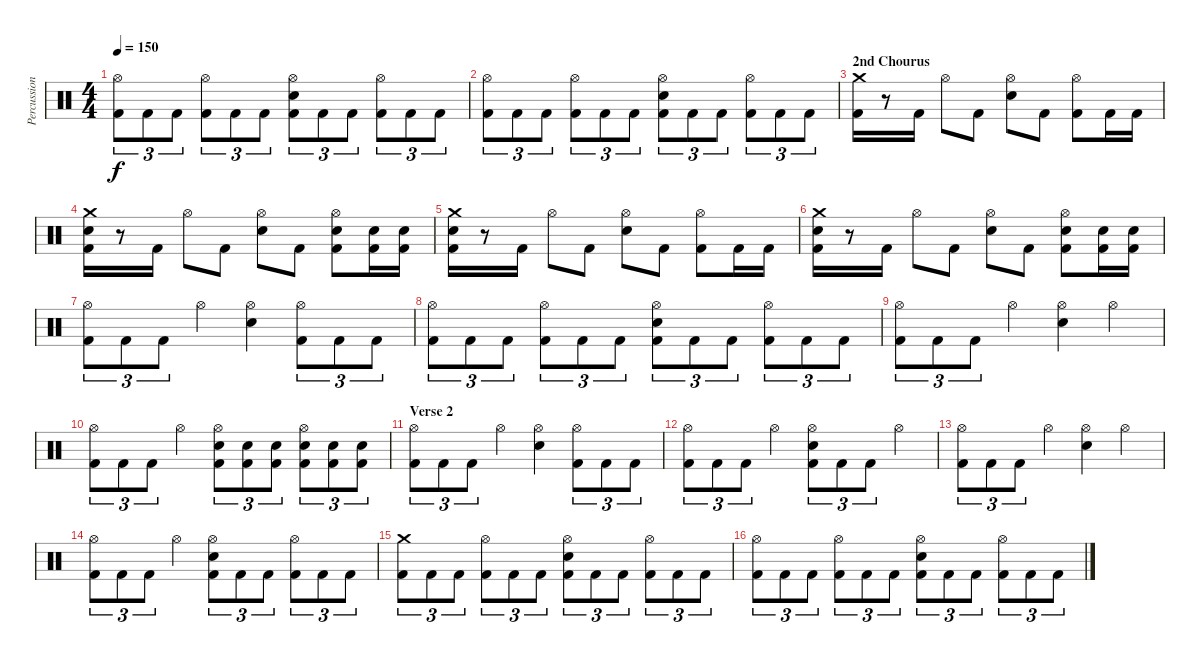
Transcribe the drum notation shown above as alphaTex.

\track ("Percussion" "Percussion") {instrument percussion}
\staff {score}
\articulation defaults
\ts (4 4)
\tempo 150
\clef neutral
\ks c
("Hi-Hat (open)" "Kick (hit) 2").8{tu (3 2) dy f} "Kick (hit) 2".8{tu (3 2)} "Kick (hit) 2".8{tu (3 2)} ("Hi-Hat (open)" "Kick (hit) 2").8{tu (3 2)} "Kick (hit) 2".8{tu (3 2)} "Kick (hit) 2".8{tu (3 2)} ("Hi-Hat (open)" "Electric Snare (hit)" "Kick (hit) 2").8{tu (3 2)} "Kick (hit) 2".8{tu (3 2)} "Kick (hit) 2".8{tu (3 2)} ("Hi-Hat (open)" "Kick (hit) 2").8{tu (3 2)} "Kick (hit) 2".8{tu (3 2)} "Kick (hit) 2".8{tu (3 2)} |
("Hi-Hat (open)" "Kick (hit) 2").8{tu (3 2)} "Kick (hit) 2".8{tu (3 2)} "Kick (hit) 2".8{tu (3 2)} ("Hi-Hat (open)" "Kick (hit) 2").8{tu (3 2)} "Kick (hit) 2".8{tu (3 2)} "Kick (hit) 2".8{tu (3 2)} ("Hi-Hat (open)" "Electric Snare (hit)" "Kick (hit) 2").8{tu (3 2)} "Kick (hit) 2".8{tu (3 2)} "Kick (hit) 2".8{tu (3 2)} ("Hi-Hat (open)" "Kick (hit) 2").8{tu (3 2)} "Kick (hit) 2".8{tu (3 2)} "Kick (hit) 2".8{tu (3 2)} |
\section ("" "2nd Chourus")
("Crash medium (hit)" "Kick (hit) 2").16 r.8 "Kick (hit) 2".16 "Hi-Hat (open)".8 "Kick (hit) 2".8 ("Hi-Hat (open)" "Electric Snare (hit)").8 "Kick (hit) 2".8 ("Hi-Hat (open)" "Kick (hit) 2").8 "Kick (hit) 2".16 "Kick (hit) 2".16 |
("Crash medium (hit)" "Electric Snare (hit)" "Kick (hit) 2").16 r.8 "Kick (hit) 2".16 "Hi-Hat (open)".8 "Kick (hit) 2".8 ("Hi-Hat (open)" "Electric Snare (hit)").8 "Kick (hit) 2".8 ("Hi-Hat (open)" "Electric Snare (hit)" "Kick (hit) 2").8 ("Electric Snare (hit)" "Kick (hit) 2").16 ("Electric Snare (hit)" "Kick (hit) 2").16 |
("Crash medium (hit)" "Electric Snare (hit)" "Kick (hit) 2").16 r.8 "Kick (hit) 2".16 "Hi-Hat (open)".8 "Kick (hit) 2".8 ("Hi-Hat (open)" "Electric Snare (hit)").8 "Kick (hit) 2".8 ("Hi-Hat (open)" "Kick (hit) 2").8 "Kick (hit) 2".16 "Kick (hit) 2".16 |
("Crash medium (hit)" "Electric Snare (hit)" "Kick (hit) 2").16 r.8 "Kick (hit) 2".16 "Hi-Hat (open)".8 "Kick (hit) 2".8 ("Hi-Hat (open)" "Electric Snare (hit)").8 "Kick (hit) 2".8 ("Hi-Hat (open)" "Electric Snare (hit)" "Kick (hit) 2").8 ("Electric Snare (hit)" "Kick (hit) 2").16 ("Electric Snare (hit)" "Kick (hit) 2").16 |
("Hi-Hat (open)" "Kick (hit) 2").8{tu (3 2)} "Kick (hit) 2".8{tu (3 2)} "Kick (hit) 2".8{tu (3 2)} "Hi-Hat (open)".4 ("Hi-Hat (open)" "Electric Snare (hit)").4 ("Hi-Hat (open)" "Kick (hit) 2").8{tu (3 2)} "Kick (hit) 2".8{tu (3 2)} "Kick (hit) 2".8{tu (3 2)} |
("Hi-Hat (open)" "Kick (hit) 2").8{tu (3 2)} "Kick (hit) 2".8{tu (3 2)} "Kick (hit) 2".8{tu (3 2)} ("Hi-Hat (open)" "Kick (hit) 2").8{tu (3 2)} "Kick (hit) 2".8{tu (3 2)} "Kick (hit) 2".8{tu (3 2)} ("Hi-Hat (open)" "Electric Snare (hit)" "Kick (hit) 2").8{tu (3 2)} "Kick (hit) 2".8{tu (3 2)} "Kick (hit) 2".8{tu (3 2)} ("Hi-Hat (open)" "Kick (hit) 2").8{tu (3 2)} "Kick (hit) 2".8{tu (3 2)} "Kick (hit) 2".8{tu (3 2)} |
("Hi-Hat (open)" "Kick (hit) 2").8{tu (3 2)} "Kick (hit) 2".8{tu (3 2)} "Kick (hit) 2".8{tu (3 2)} "Hi-Hat (open)".4 ("Hi-Hat (open)" "Electric Snare (hit)").4 "Hi-Hat (open)".4 |
("Hi-Hat (open)" "Kick (hit) 2").8{tu (3 2)} "Kick (hit) 2".8{tu (3 2)} "Kick (hit) 2".8{tu (3 2)} "Hi-Hat (open)".4 ("Hi-Hat (open)" "Electric Snare (hit)" "Kick (hit) 2").8{tu (3 2)} ("Electric Snare (hit)" "Kick (hit) 2").8{tu (3 2)} ("Electric Snare (hit)" "Kick (hit) 2").8{tu (3 2)} ("Hi-Hat (open)" "Electric Snare (hit)" "Kick (hit) 2").8{tu (3 2)} ("Electric Snare (hit)" "Kick (hit) 2").8{tu (3 2)} ("Electric Snare (hit)" "Kick (hit) 2").8{tu (3 2)} |
\section ("" "Verse 2")
("Hi-Hat (open)" "Kick (hit) 2").8{tu (3 2)} "Kick (hit) 2".8{tu (3 2)} "Kick (hit) 2".8{tu (3 2)} "Hi-Hat (open)".4 ("Hi-Hat (open)" "Electric Snare (hit)").4 ("Hi-Hat (open)" "Kick (hit) 2").8{tu (3 2)} "Kick (hit) 2".8{tu (3 2)} "Kick (hit) 2".8{tu (3 2)} |
("Hi-Hat (open)" "Kick (hit) 2").8{tu (3 2)} "Kick (hit) 2".8{tu (3 2)} "Kick (hit) 2".8{tu (3 2)} "Hi-Hat (open)".4 ("Hi-Hat (open)" "Electric Snare (hit)" "Kick (hit) 2").8{tu (3 2)} "Kick (hit) 2".8{tu (3 2)} "Kick (hit) 2".8{tu (3 2)} "Hi-Hat (open)".4 |
("Hi-Hat (open)" "Kick (hit) 2").8{tu (3 2)} "Kick (hit) 2".8{tu (3 2)} "Kick (hit) 2".8{tu (3 2)} "Hi-Hat (open)".4 ("Hi-Hat (open)" "Electric Snare (hit)").4 "Hi-Hat (open)".4 |
("Hi-Hat (open)" "Kick (hit) 2").8{tu (3 2)} "Kick (hit) 2".8{tu (3 2)} "Kick (hit) 2".8{tu (3 2)} "Hi-Hat (open)".4 ("Hi-Hat (open)" "Electric Snare (hit)" "Kick (hit) 2").8{tu (3 2)} "Kick (hit) 2".8{tu (3 2)} "Kick (hit) 2".8{tu (3 2)} ("Hi-Hat (open)" "Kick (hit) 2").8{tu (3 2)} "Kick (hit) 2".8{tu (3 2)} "Kick (hit) 2".8{tu (3 2)} |
("Crash medium (hit)" "Kick (hit) 2").8{tu (3 2)} "Kick (hit) 2".8{tu (3 2)} "Kick (hit) 2".8{tu (3 2)} ("Hi-Hat (open)" "Kick (hit) 2").8{tu (3 2)} "Kick (hit) 2".8{tu (3 2)} "Kick (hit) 2".8{tu (3 2)} ("Hi-Hat (open)" "Electric Snare (hit)" "Kick (hit) 2").8{tu (3 2)} "Kick (hit) 2".8{tu (3 2)} "Kick (hit) 2".8{tu (3 2)} ("Hi-Hat (open)" "Kick (hit) 2").8{tu (3 2)} "Kick (hit) 2".8{tu (3 2)} "Kick (hit) 2".8{tu (3 2)} |
("Hi-Hat (open)" "Kick (hit) 2").8{tu (3 2)} "Kick (hit) 2".8{tu (3 2)} "Kick (hit) 2".8{tu (3 2)} ("Hi-Hat (open)" "Kick (hit) 2").8{tu (3 2)} "Kick (hit) 2".8{tu (3 2)} "Kick (hit) 2".8{tu (3 2)} ("Hi-Hat (open)" "Electric Snare (hit)" "Kick (hit) 2").8{tu (3 2)} "Kick (hit) 2".8{tu (3 2)} "Kick (hit) 2".8{tu (3 2)} ("Hi-Hat (open)" "Kick (hit) 2").8{tu (3 2)} "Kick (hit) 2".8{tu (3 2)} "Kick (hit) 2".8{tu (3 2)}
